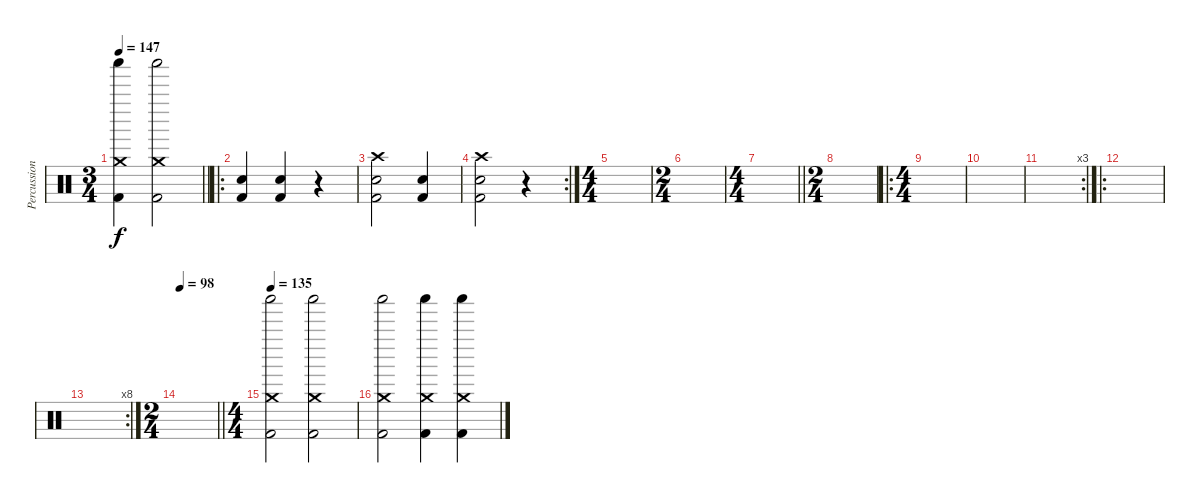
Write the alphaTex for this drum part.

\track ("Percussioni" "Percussion") {instrument percussion}
\staff {score}
\articulation defaults
\ts (3 4)
\tempo 147
\clef neutral
\barLineRight lightlight
\ks c
("Kick (hit) 2" "Shaker (hit)" "Crash medium (hit)").4{dy f} ("Kick (hit) 2" "Shaker (hit)" "Crash medium (hit)").2 |
\ro
("Kick (hit) 2" "Snare (hit) 2").4 ("Kick (hit) 2" "Snare (hit) 2").4 r.4 |
("Crash high (hit)" "Kick (hit) 2" "Snare (hit) 2").2 ("Kick (hit) 2" "Snare (hit) 2").4 |
\rc 2
("Crash high (hit)" "Kick (hit) 2" "Snare (hit) 2").2 r.4 |
\ts (4 4)
|
\ts (2 4)
|
\ts (4 4)
\barLineRight lightlight
|
\ts (2 4)
|
\ro
\ts (4 4)
|
|
\rc 3
|
\ro
|
\rc 8
|
\ts (2 4)
\tempo 98
\barLineRight lightlight
|
\ts (4 4)
\tempo 135
("Kick (hit) 2" "Shaker (hit)" "Crash medium (hit)").2 ("Kick (hit) 2" "Shaker (hit)" "Crash medium (hit)").2 |
("Kick (hit) 2" "Shaker (hit)" "Crash medium (hit)").2 ("Kick (hit) 2" "Shaker (hit)" "Crash medium (hit)").4 ("Kick (hit) 2" "Shaker (hit)" "Crash medium (hit)").4
